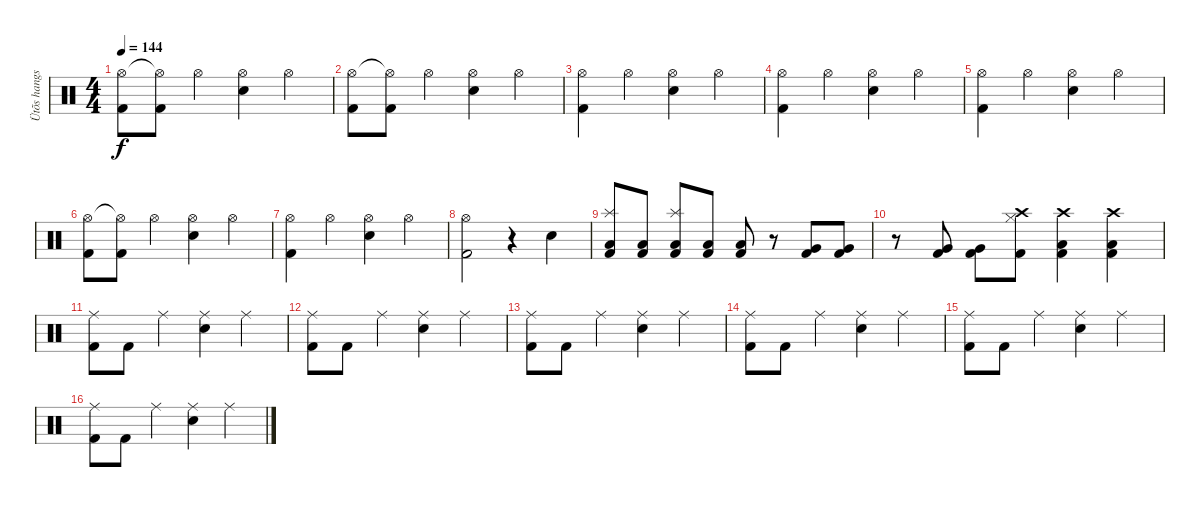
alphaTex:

\track ("Ütõs hangszer" "Ütõs hangs") {instrument percussion}
\staff {score}
\articulation defaults
\ts (4 4)
\tempo 144
\clef neutral
\ks c
("Hi-Hat (open)" "Kick (hit) 2").8{dy f} ("Hi-Hat (open)"{t} "Kick (hit) 2").8 "Hi-Hat (open)".4 ("Hi-Hat (open)" "Snare (hit) 2").4 "Hi-Hat (open)".4 |
("Hi-Hat (open)" "Kick (hit) 2").8 ("Hi-Hat (open)"{t} "Kick (hit) 2").8 "Hi-Hat (open)".4 ("Hi-Hat (open)" "Snare (hit) 2").4 "Hi-Hat (open)".4 |
("Hi-Hat (open)" "Kick (hit) 2").4 "Hi-Hat (open)".4 ("Hi-Hat (open)" "Snare (hit) 2").4 "Hi-Hat (open)".4 |
("Hi-Hat (open)" "Kick (hit) 2").4 "Hi-Hat (open)".4 ("Hi-Hat (open)" "Snare (hit) 2").4 "Hi-Hat (open)".4 |
("Hi-Hat (open)" "Kick (hit) 2").4 "Hi-Hat (open)".4 ("Hi-Hat (open)" "Snare (hit) 2").4 "Hi-Hat (open)".4 |
("Hi-Hat (open)" "Kick (hit) 2").8 ("Hi-Hat (open)"{t} "Kick (hit) 2").8 "Hi-Hat (open)".4 ("Hi-Hat (open)" "Snare (hit) 2").4 "Hi-Hat (open)".4 |
("Hi-Hat (open)" "Kick (hit) 2").4 "Hi-Hat (open)".4 ("Hi-Hat (open)" "Snare (hit) 2").4 "Hi-Hat (open)".4 |
("Hi-Hat (open)" "Kick (hit) 2").2 r.4 "Snare (hit) 2".4 |
("Splash (hit)" "Low Floor Tom (hit)" "Kick (hit) 2").8 ("Low Floor Tom (hit)" "Kick (hit) 2").8 ("Splash (hit)" "Low Floor Tom (hit)" "Kick (hit) 2").8 ("Low Floor Tom (hit)" "Kick (hit) 2").8 ("Low Floor Tom (hit)" "Kick (hit) 2").8 r.8 ("Very Low Tom (hit)" "Kick (hit) 2").8 ("Very Low Tom (hit)" "Kick (hit) 2").8 |
r.8 ("Very Low Tom (hit)" "Kick (hit) 2").8 ("Very Low Tom (hit)" "Kick (hit) 2").8 ("Hi-Hat (closed)" "Crash high (hit)" "Kick (hit) 2").8 ("Crash high (hit)" "Low Floor Tom (hit)" "Kick (hit) 2").4 ("Crash high (hit)" "Low Floor Tom (hit)" "Kick (hit) 2").4 |
("Ride (middle)" "Kick (hit) 2").8 "Kick (hit) 2".8 "Ride (middle)".4 ("Ride (middle)" "Snare (hit) 2").4 "Ride (middle)".4 |
("Ride (middle)" "Kick (hit) 2").8 "Kick (hit) 2".8 "Ride (middle)".4 ("Ride (middle)" "Snare (hit) 2").4 "Ride (middle)".4 |
("Ride (middle)" "Kick (hit) 2").8 "Kick (hit) 2".8 "Ride (middle)".4 ("Ride (middle)" "Snare (hit) 2").4 "Ride (middle)".4 |
("Ride (middle)" "Kick (hit) 2").8 "Kick (hit) 2".8 "Ride (middle)".4 ("Ride (middle)" "Snare (hit) 2").4 "Ride (middle)".4 |
("Ride (middle)" "Kick (hit) 2").8 "Kick (hit) 2".8 "Ride (middle)".4 ("Ride (middle)" "Snare (hit) 2").4 "Ride (middle)".4 |
("Ride (middle)" "Kick (hit) 2").8 "Kick (hit) 2".8 "Ride (middle)".4 ("Ride (middle)" "Snare (hit) 2").4 "Ride (middle)".4
